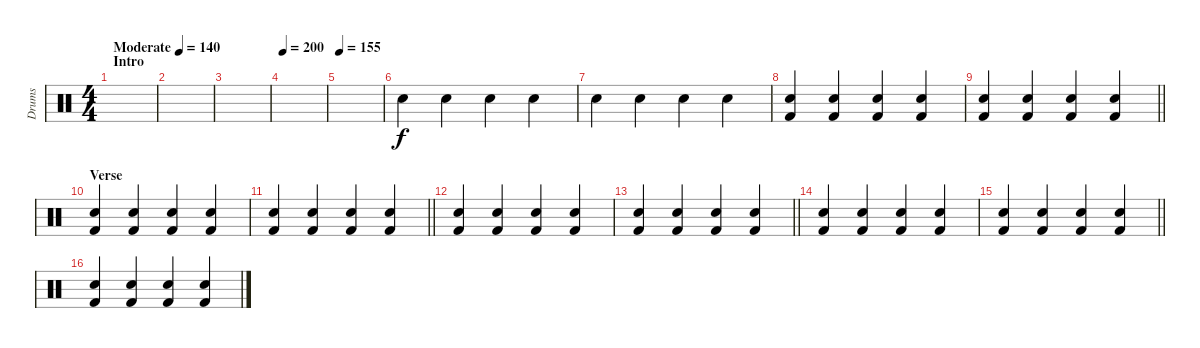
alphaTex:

\track ("Drums" "Drums") {instrument percussion}
\staff {score}
\articulation defaults
\ts (4 4)
\section ("" "Intro")
\tempo (140 "Moderate")
\clef neutral
\ks c
|
|
|
\tempo 200
|
\tempo 155
|
"Electric Snare (hit)".4 "Electric Snare (hit)".4 "Electric Snare (hit)".4 "Electric Snare (hit)".4 |
"Electric Snare (hit)".4 "Electric Snare (hit)".4 "Electric Snare (hit)".4 "Electric Snare (hit)".4 |
("Electric Snare (hit)" "Kick (hit) 2").4 ("Electric Snare (hit)" "Kick (hit) 2").4 ("Electric Snare (hit)" "Kick (hit) 2").4 ("Electric Snare (hit)" "Kick (hit) 2").4 |
\barLineRight lightlight
("Electric Snare (hit)" "Kick (hit) 2").4 ("Electric Snare (hit)" "Kick (hit) 2").4 ("Electric Snare (hit)" "Kick (hit) 2").4 ("Electric Snare (hit)" "Kick (hit) 2").4 |
\section ("" "Verse")
("Electric Snare (hit)" "Kick (hit) 2").4 ("Electric Snare (hit)" "Kick (hit) 2").4 ("Electric Snare (hit)" "Kick (hit) 2").4 ("Electric Snare (hit)" "Kick (hit) 2").4 |
\barLineRight lightlight
("Electric Snare (hit)" "Kick (hit) 2").4 ("Electric Snare (hit)" "Kick (hit) 2").4 ("Electric Snare (hit)" "Kick (hit) 2").4 ("Electric Snare (hit)" "Kick (hit) 2").4 |
("Electric Snare (hit)" "Kick (hit) 2").4 ("Electric Snare (hit)" "Kick (hit) 2").4 ("Electric Snare (hit)" "Kick (hit) 2").4 ("Electric Snare (hit)" "Kick (hit) 2").4 |
\barLineRight lightlight
("Electric Snare (hit)" "Kick (hit) 2").4 ("Electric Snare (hit)" "Kick (hit) 2").4 ("Electric Snare (hit)" "Kick (hit) 2").4 ("Electric Snare (hit)" "Kick (hit) 2").4 |
("Electric Snare (hit)" "Kick (hit) 2").4 ("Electric Snare (hit)" "Kick (hit) 2").4 ("Electric Snare (hit)" "Kick (hit) 2").4 ("Electric Snare (hit)" "Kick (hit) 2").4 |
\barLineRight lightlight
("Electric Snare (hit)" "Kick (hit) 2").4 ("Electric Snare (hit)" "Kick (hit) 2").4 ("Electric Snare (hit)" "Kick (hit) 2").4 ("Electric Snare (hit)" "Kick (hit) 2").4 |
("Electric Snare (hit)" "Kick (hit) 2").4 ("Electric Snare (hit)" "Kick (hit) 2").4 ("Electric Snare (hit)" "Kick (hit) 2").4 ("Electric Snare (hit)" "Kick (hit) 2").4
